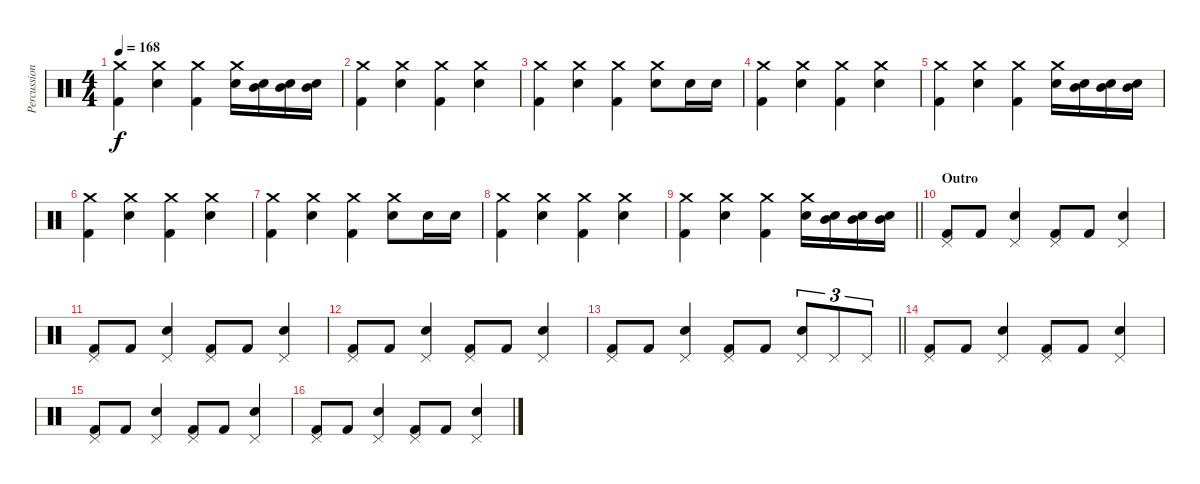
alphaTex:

\track ("Percussion" "Percussion") {instrument percussion}
\staff {score}
\articulation defaults
\ts (4 4)
\tempo 168
\clef neutral
\ks c
("Crash medium (hit)" "Kick (hit) 2").4{dy f} ("Crash medium (hit)" "Electric Snare (hit)").4 ("Crash medium (hit)" "Kick (hit) 2").4 ("Crash medium (hit)" "Electric Snare (hit)").16 ("Mid Tom (hit)" "Electric Snare (hit)").16 ("Mid Tom (hit)" "Electric Snare (hit)").16 ("Mid Tom (hit)" "Electric Snare (hit)").16 |
("Crash medium (hit)" "Kick (hit) 2").4 ("Crash medium (hit)" "Electric Snare (hit)").4 ("Crash medium (hit)" "Kick (hit) 2").4 ("Crash medium (hit)" "Electric Snare (hit)").4 |
("Crash medium (hit)" "Kick (hit) 2").4 ("Crash medium (hit)" "Electric Snare (hit)").4 ("Crash medium (hit)" "Kick (hit) 2").4 ("Crash medium (hit)" "Electric Snare (hit)").8 "Electric Snare (hit)".16 "Electric Snare (hit)".16 |
("Crash medium (hit)" "Kick (hit) 2").4 ("Crash medium (hit)" "Electric Snare (hit)").4 ("Crash medium (hit)" "Kick (hit) 2").4 ("Crash medium (hit)" "Electric Snare (hit)").4 |
("Crash medium (hit)" "Kick (hit) 2").4 ("Crash medium (hit)" "Electric Snare (hit)").4 ("Crash medium (hit)" "Kick (hit) 2").4 ("Crash medium (hit)" "Electric Snare (hit)").16 ("Mid Tom (hit)" "Electric Snare (hit)").16 ("Mid Tom (hit)" "Electric Snare (hit)").16 ("Mid Tom (hit)" "Electric Snare (hit)").16 |
("Crash medium (hit)" "Kick (hit) 2").4 ("Crash medium (hit)" "Electric Snare (hit)").4 ("Crash medium (hit)" "Kick (hit) 2").4 ("Crash medium (hit)" "Electric Snare (hit)").4 |
("Crash medium (hit)" "Kick (hit) 2").4 ("Crash medium (hit)" "Electric Snare (hit)").4 ("Crash medium (hit)" "Kick (hit) 2").4 ("Crash medium (hit)" "Electric Snare (hit)").8 "Electric Snare (hit)".16 "Electric Snare (hit)".16 |
("Crash medium (hit)" "Kick (hit) 2").4 ("Crash medium (hit)" "Electric Snare (hit)").4 ("Crash medium (hit)" "Kick (hit) 2").4 ("Crash medium (hit)" "Electric Snare (hit)").4 |
\barLineRight lightlight
("Crash medium (hit)" "Kick (hit) 2").4 ("Crash medium (hit)" "Electric Snare (hit)").4 ("Crash medium (hit)" "Kick (hit) 2").4 ("Crash medium (hit)" "Electric Snare (hit)").16 ("Mid Tom (hit)" "Electric Snare (hit)").16 ("Mid Tom (hit)" "Electric Snare (hit)").16 ("Mid Tom (hit)" "Electric Snare (hit)").16 |
\section ("" "Outro")
("Pedal Hi-Hat (hit)" "Kick (hit) 2").8 "Kick (hit) 2".8 ("Pedal Hi-Hat (hit)" "Electric Snare (hit)").4 ("Pedal Hi-Hat (hit)" "Kick (hit) 2").8 "Kick (hit) 2".8 ("Pedal Hi-Hat (hit)" "Electric Snare (hit)").4 |
("Pedal Hi-Hat (hit)" "Kick (hit) 2").8 "Kick (hit) 2".8 ("Pedal Hi-Hat (hit)" "Electric Snare (hit)").4 ("Pedal Hi-Hat (hit)" "Kick (hit) 2").8 "Kick (hit) 2".8 ("Pedal Hi-Hat (hit)" "Electric Snare (hit)").4 |
("Pedal Hi-Hat (hit)" "Kick (hit) 2").8 "Kick (hit) 2".8 ("Pedal Hi-Hat (hit)" "Electric Snare (hit)").4 ("Pedal Hi-Hat (hit)" "Kick (hit) 2").8 "Kick (hit) 2".8 ("Pedal Hi-Hat (hit)" "Electric Snare (hit)").4 |
\barLineRight lightlight
("Pedal Hi-Hat (hit)" "Kick (hit) 2").8 "Kick (hit) 2".8 ("Pedal Hi-Hat (hit)" "Electric Snare (hit)").4 ("Pedal Hi-Hat (hit)" "Kick (hit) 2").8 "Kick (hit) 2".8 ("Pedal Hi-Hat (hit)" "Electric Snare (hit)").8{tu (3 2)} "Pedal Hi-Hat (hit)".8{tu (3 2)} "Pedal Hi-Hat (hit)".8{tu (3 2)} |
("Pedal Hi-Hat (hit)" "Kick (hit) 2").8 "Kick (hit) 2".8 ("Pedal Hi-Hat (hit)" "Electric Snare (hit)").4 ("Pedal Hi-Hat (hit)" "Kick (hit) 2").8 "Kick (hit) 2".8 ("Pedal Hi-Hat (hit)" "Electric Snare (hit)").4 |
("Pedal Hi-Hat (hit)" "Kick (hit) 2").8 "Kick (hit) 2".8 ("Pedal Hi-Hat (hit)" "Electric Snare (hit)").4 ("Pedal Hi-Hat (hit)" "Kick (hit) 2").8 "Kick (hit) 2".8 ("Pedal Hi-Hat (hit)" "Electric Snare (hit)").4 |
("Pedal Hi-Hat (hit)" "Kick (hit) 2").8 "Kick (hit) 2".8 ("Pedal Hi-Hat (hit)" "Electric Snare (hit)").4 ("Pedal Hi-Hat (hit)" "Kick (hit) 2").8 "Kick (hit) 2".8 ("Pedal Hi-Hat (hit)" "Electric Snare (hit)").4
